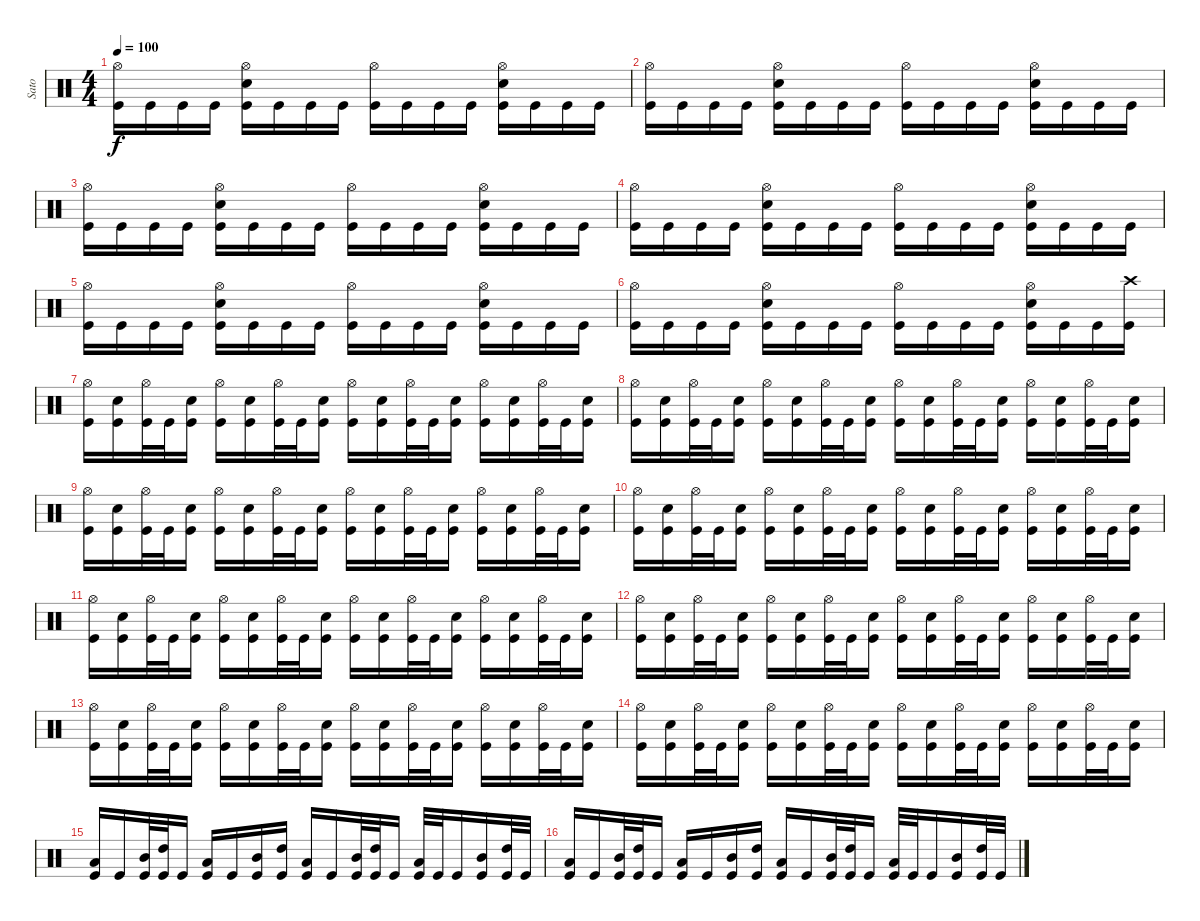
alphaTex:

\track ("Sato" "Sato") {instrument percussion}
\staff {score}
\articulation defaults
\ts (4 4)
\tempo 100
\clef neutral
\ks c
("Hi-Hat (open)" "Kick (hit)").16{dy f} "Kick (hit)".16 "Kick (hit)".16 "Kick (hit)".16 ("Hi-Hat (open)" "Electric Snare (hit)" "Kick (hit)").16 "Kick (hit)".16 "Kick (hit)".16 "Kick (hit)".16 ("Hi-Hat (open)" "Kick (hit)").16 "Kick (hit)".16 "Kick (hit)".16 "Kick (hit)".16 ("Hi-Hat (open)" "Electric Snare (hit)" "Kick (hit)").16 "Kick (hit)".16 "Kick (hit)".16 "Kick (hit)".16 |
("Hi-Hat (open)" "Kick (hit)").16 "Kick (hit)".16 "Kick (hit)".16 "Kick (hit)".16 ("Hi-Hat (open)" "Electric Snare (hit)" "Kick (hit)").16 "Kick (hit)".16 "Kick (hit)".16 "Kick (hit)".16 ("Hi-Hat (open)" "Kick (hit)").16 "Kick (hit)".16 "Kick (hit)".16 "Kick (hit)".16 ("Hi-Hat (open)" "Electric Snare (hit)" "Kick (hit)").16 "Kick (hit)".16 "Kick (hit)".16 "Kick (hit)".16 |
("Hi-Hat (open)" "Kick (hit)").16 "Kick (hit)".16 "Kick (hit)".16 "Kick (hit)".16 ("Hi-Hat (open)" "Electric Snare (hit)" "Kick (hit)").16 "Kick (hit)".16 "Kick (hit)".16 "Kick (hit)".16 ("Hi-Hat (open)" "Kick (hit)").16 "Kick (hit)".16 "Kick (hit)".16 "Kick (hit)".16 ("Hi-Hat (open)" "Electric Snare (hit)" "Kick (hit)").16 "Kick (hit)".16 "Kick (hit)".16 "Kick (hit)".16 |
("Hi-Hat (open)" "Kick (hit)").16 "Kick (hit)".16 "Kick (hit)".16 "Kick (hit)".16 ("Hi-Hat (open)" "Electric Snare (hit)" "Kick (hit)").16 "Kick (hit)".16 "Kick (hit)".16 "Kick (hit)".16 ("Hi-Hat (open)" "Kick (hit)").16 "Kick (hit)".16 "Kick (hit)".16 "Kick (hit)".16 ("Hi-Hat (open)" "Electric Snare (hit)" "Kick (hit)").16 "Kick (hit)".16 "Kick (hit)".16 "Kick (hit)".16 |
("Hi-Hat (open)" "Kick (hit)").16 "Kick (hit)".16 "Kick (hit)".16 "Kick (hit)".16 ("Hi-Hat (open)" "Electric Snare (hit)" "Kick (hit)").16 "Kick (hit)".16 "Kick (hit)".16 "Kick (hit)".16 ("Hi-Hat (open)" "Kick (hit)").16 "Kick (hit)".16 "Kick (hit)".16 "Kick (hit)".16 ("Hi-Hat (open)" "Electric Snare (hit)" "Kick (hit)").16 "Kick (hit)".16 "Kick (hit)".16 "Kick (hit)".16 |
("Hi-Hat (open)" "Kick (hit)").16 "Kick (hit)".16 "Kick (hit)".16 "Kick (hit)".16 ("Hi-Hat (open)" "Electric Snare (hit)" "Kick (hit)").16 "Kick (hit)".16 "Kick (hit)".16 "Kick (hit)".16 ("Hi-Hat (open)" "Kick (hit)").16 "Kick (hit)".16 "Kick (hit)".16 "Kick (hit)".16 ("Hi-Hat (open)" "Electric Snare (hit)" "Kick (hit)").16 "Kick (hit)".16 "Kick (hit)".16 ("Crash high (hit)" "Kick (hit)").16 |
("Hi-Hat (open)" "Kick (hit)").16 ("Electric Snare (hit)" "Kick (hit)").16 ("Hi-Hat (open)" "Kick (hit)").32 "Kick (hit)".32 ("Electric Snare (hit)" "Kick (hit)").16 ("Hi-Hat (open)" "Kick (hit)").16 ("Electric Snare (hit)" "Kick (hit)").16 ("Hi-Hat (open)" "Kick (hit)").32 "Kick (hit)".32 ("Electric Snare (hit)" "Kick (hit)").16 ("Hi-Hat (open)" "Kick (hit)").16 ("Electric Snare (hit)" "Kick (hit)").16 ("Hi-Hat (open)" "Kick (hit)").32 "Kick (hit)".32 ("Electric Snare (hit)" "Kick (hit)").16 ("Hi-Hat (open)" "Kick (hit)").16 ("Electric Snare (hit)" "Kick (hit)").16 ("Hi-Hat (open)" "Kick (hit)").32 "Kick (hit)".32 ("Electric Snare (hit)" "Kick (hit)").16 |
("Hi-Hat (open)" "Kick (hit)").16 ("Electric Snare (hit)" "Kick (hit)").16 ("Hi-Hat (open)" "Kick (hit)").32 "Kick (hit)".32 ("Electric Snare (hit)" "Kick (hit)").16 ("Hi-Hat (open)" "Kick (hit)").16 ("Electric Snare (hit)" "Kick (hit)").16 ("Hi-Hat (open)" "Kick (hit)").32 "Kick (hit)".32 ("Electric Snare (hit)" "Kick (hit)").16 ("Hi-Hat (open)" "Kick (hit)").16 ("Electric Snare (hit)" "Kick (hit)").16 ("Hi-Hat (open)" "Kick (hit)").32 "Kick (hit)".32 ("Electric Snare (hit)" "Kick (hit)").16 ("Hi-Hat (open)" "Kick (hit)").16 ("Electric Snare (hit)" "Kick (hit)").16 ("Hi-Hat (open)" "Kick (hit)").32 "Kick (hit)".32 ("Electric Snare (hit)" "Kick (hit)").16 |
("Hi-Hat (open)" "Kick (hit)").16 ("Electric Snare (hit)" "Kick (hit)").16 ("Hi-Hat (open)" "Kick (hit)").32 "Kick (hit)".32 ("Electric Snare (hit)" "Kick (hit)").16 ("Hi-Hat (open)" "Kick (hit)").16 ("Electric Snare (hit)" "Kick (hit)").16 ("Hi-Hat (open)" "Kick (hit)").32 "Kick (hit)".32 ("Electric Snare (hit)" "Kick (hit)").16 ("Hi-Hat (open)" "Kick (hit)").16 ("Electric Snare (hit)" "Kick (hit)").16 ("Hi-Hat (open)" "Kick (hit)").32 "Kick (hit)".32 ("Electric Snare (hit)" "Kick (hit)").16 ("Hi-Hat (open)" "Kick (hit)").16 ("Electric Snare (hit)" "Kick (hit)").16 ("Hi-Hat (open)" "Kick (hit)").32 "Kick (hit)".32 ("Electric Snare (hit)" "Kick (hit)").16 |
("Hi-Hat (open)" "Kick (hit)").16 ("Electric Snare (hit)" "Kick (hit)").16 ("Hi-Hat (open)" "Kick (hit)").32 "Kick (hit)".32 ("Electric Snare (hit)" "Kick (hit)").16 ("Hi-Hat (open)" "Kick (hit)").16 ("Electric Snare (hit)" "Kick (hit)").16 ("Hi-Hat (open)" "Kick (hit)").32 "Kick (hit)".32 ("Electric Snare (hit)" "Kick (hit)").16 ("Hi-Hat (open)" "Kick (hit)").16 ("Electric Snare (hit)" "Kick (hit)").16 ("Hi-Hat (open)" "Kick (hit)").32 "Kick (hit)".32 ("Electric Snare (hit)" "Kick (hit)").16 ("Hi-Hat (open)" "Kick (hit)").16 ("Electric Snare (hit)" "Kick (hit)").16 ("Hi-Hat (open)" "Kick (hit)").32 "Kick (hit)".32 ("Electric Snare (hit)" "Kick (hit)").16 |
("Hi-Hat (open)" "Kick (hit)").16 ("Electric Snare (hit)" "Kick (hit)").16 ("Hi-Hat (open)" "Kick (hit)").32 "Kick (hit)".32 ("Electric Snare (hit)" "Kick (hit)").16 ("Hi-Hat (open)" "Kick (hit)").16 ("Electric Snare (hit)" "Kick (hit)").16 ("Hi-Hat (open)" "Kick (hit)").32 "Kick (hit)".32 ("Electric Snare (hit)" "Kick (hit)").16 ("Hi-Hat (open)" "Kick (hit)").16 ("Electric Snare (hit)" "Kick (hit)").16 ("Hi-Hat (open)" "Kick (hit)").32 "Kick (hit)".32 ("Electric Snare (hit)" "Kick (hit)").16 ("Hi-Hat (open)" "Kick (hit)").16 ("Electric Snare (hit)" "Kick (hit)").16 ("Hi-Hat (open)" "Kick (hit)").32 "Kick (hit)".32 ("Electric Snare (hit)" "Kick (hit)").16 |
("Hi-Hat (open)" "Kick (hit)").16 ("Electric Snare (hit)" "Kick (hit)").16 ("Hi-Hat (open)" "Kick (hit)").32 "Kick (hit)".32 ("Electric Snare (hit)" "Kick (hit)").16 ("Hi-Hat (open)" "Kick (hit)").16 ("Electric Snare (hit)" "Kick (hit)").16 ("Hi-Hat (open)" "Kick (hit)").32 "Kick (hit)".32 ("Electric Snare (hit)" "Kick (hit)").16 ("Hi-Hat (open)" "Kick (hit)").16 ("Electric Snare (hit)" "Kick (hit)").16 ("Hi-Hat (open)" "Kick (hit)").32 "Kick (hit)".32 ("Electric Snare (hit)" "Kick (hit)").16 ("Hi-Hat (open)" "Kick (hit)").16 ("Electric Snare (hit)" "Kick (hit)").16 ("Hi-Hat (open)" "Kick (hit)").32 "Kick (hit)".32 ("Electric Snare (hit)" "Kick (hit)").16 |
("Hi-Hat (open)" "Kick (hit)").16 ("Electric Snare (hit)" "Kick (hit)").16 ("Hi-Hat (open)" "Kick (hit)").32 "Kick (hit)".32 ("Electric Snare (hit)" "Kick (hit)").16 ("Hi-Hat (open)" "Kick (hit)").16 ("Electric Snare (hit)" "Kick (hit)").16 ("Hi-Hat (open)" "Kick (hit)").32 "Kick (hit)".32 ("Electric Snare (hit)" "Kick (hit)").16 ("Hi-Hat (open)" "Kick (hit)").16 ("Electric Snare (hit)" "Kick (hit)").16 ("Hi-Hat (open)" "Kick (hit)").32 "Kick (hit)".32 ("Electric Snare (hit)" "Kick (hit)").16 ("Hi-Hat (open)" "Kick (hit)").16 ("Electric Snare (hit)" "Kick (hit)").16 ("Hi-Hat (open)" "Kick (hit)").32 "Kick (hit)".32 ("Electric Snare (hit)" "Kick (hit)").16 |
("Hi-Hat (open)" "Kick (hit)").16 ("Electric Snare (hit)" "Kick (hit)").16 ("Hi-Hat (open)" "Kick (hit)").32 "Kick (hit)".32 ("Electric Snare (hit)" "Kick (hit)").16 ("Hi-Hat (open)" "Kick (hit)").16 ("Electric Snare (hit)" "Kick (hit)").16 ("Hi-Hat (open)" "Kick (hit)").32 "Kick (hit)".32 ("Electric Snare (hit)" "Kick (hit)").16 ("Hi-Hat (open)" "Kick (hit)").16 ("Electric Snare (hit)" "Kick (hit)").16 ("Hi-Hat (open)" "Kick (hit)").32 "Kick (hit)".32 ("Electric Snare (hit)" "Kick (hit)").16 ("Hi-Hat (open)" "Kick (hit)").16 ("Electric Snare (hit)" "Kick (hit)").16 ("Hi-Hat (open)" "Kick (hit)").32 "Kick (hit)".32 ("Electric Snare (hit)" "Kick (hit)").16 |
("Low Tom (hit)" "Kick (hit)").16 "Kick (hit)".16 ("Mid Tom (hit)" "Kick (hit)").32 ("High Tom (hit)" "Kick (hit)").32 "Kick (hit)".16 ("Low Tom (hit)" "Kick (hit)").16 "Kick (hit)".16 ("Mid Tom (hit)" "Kick (hit)").16 ("High Tom (hit)" "Kick (hit)").16 ("Low Tom (hit)" "Kick (hit)").16 "Kick (hit)".16 ("Mid Tom (hit)" "Kick (hit)").32 ("High Tom (hit)" "Kick (hit)").32 "Kick (hit)".16 ("Low Tom (hit)" "Kick (hit)").32 "Kick (hit)".32 "Kick (hit)".16 ("Mid Tom (hit)" "Kick (hit)").16 ("High Tom (hit)" "Kick (hit)").32 "Kick (hit)".32 |
("Low Tom (hit)" "Kick (hit)").16 "Kick (hit)".16 ("Mid Tom (hit)" "Kick (hit)").32 ("High Tom (hit)" "Kick (hit)").32 "Kick (hit)".16 ("Low Tom (hit)" "Kick (hit)").16 "Kick (hit)".16 ("Mid Tom (hit)" "Kick (hit)").16 ("High Tom (hit)" "Kick (hit)").16 ("Low Tom (hit)" "Kick (hit)").16 "Kick (hit)".16 ("Mid Tom (hit)" "Kick (hit)").32 ("High Tom (hit)" "Kick (hit)").32 "Kick (hit)".16 ("Low Tom (hit)" "Kick (hit)").32 "Kick (hit)".32 "Kick (hit)".16 ("Mid Tom (hit)" "Kick (hit)").16 ("High Tom (hit)" "Kick (hit)").32 "Kick (hit)".32
